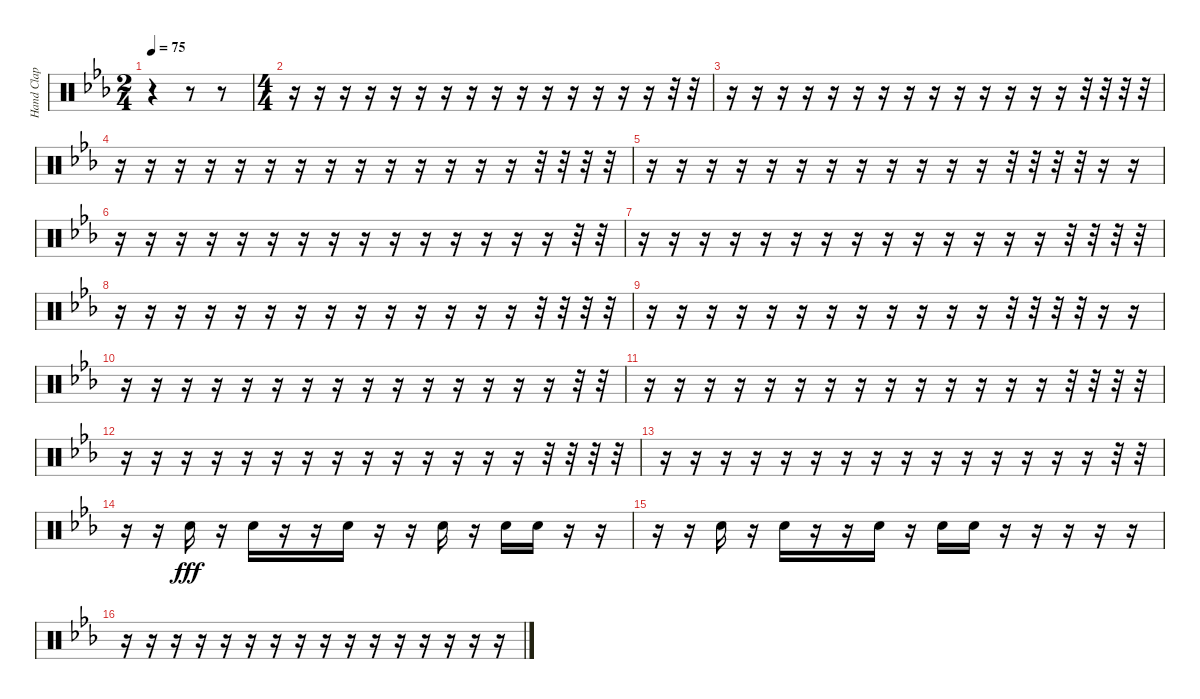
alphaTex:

\track ("Hand Clap" "Hand Clap") {instrument percussion}
\staff {score}
\articulation defaults
\ts (2 4)
\tempo 75
\clef neutral
\ks eb
r.4{dy fff} r.8 r.8 |
\ts (4 4)
r.16 r.16 r.16 r.16 r.16 r.16 r.16 r.16 r.16 r.16 r.16 r.16 r.16 r.16 r.16 r.32 r.32 |
r.16 r.16 r.16 r.16 r.16 r.16 r.16 r.16 r.16 r.16 r.16 r.16 r.16 r.16 r.32 r.32 r.32 r.32 |
r.16 r.16 r.16 r.16 r.16 r.16 r.16 r.16 r.16 r.16 r.16 r.16 r.16 r.16 r.32 r.32 r.32 r.32 |
r.16 r.16 r.16 r.16 r.16 r.16 r.16 r.16 r.16 r.16 r.16 r.16 r.32 r.32 r.32 r.32 r.16 r.16 |
r.16 r.16 r.16 r.16 r.16 r.16 r.16 r.16 r.16 r.16 r.16 r.16 r.16 r.16 r.16 r.32 r.32 |
r.16 r.16 r.16 r.16 r.16 r.16 r.16 r.16 r.16 r.16 r.16 r.16 r.16 r.16 r.32 r.32 r.32 r.32 |
r.16 r.16 r.16 r.16 r.16 r.16 r.16 r.16 r.16 r.16 r.16 r.16 r.16 r.16 r.32 r.32 r.32 r.32 |
r.16 r.16 r.16 r.16 r.16 r.16 r.16 r.16 r.16 r.16 r.16 r.16 r.32 r.32 r.32 r.32 r.16 r.16 |
r.16 r.16 r.16 r.16 r.16 r.16 r.16 r.16 r.16 r.16 r.16 r.16 r.16 r.16 r.16 r.32 r.32 |
r.16 r.16 r.16 r.16 r.16 r.16 r.16 r.16 r.16 r.16 r.16 r.16 r.16 r.16 r.32 r.32 r.32 r.32 |
r.16 r.16 r.16 r.16 r.16 r.16 r.16 r.16 r.16 r.16 r.16 r.16 r.16 r.16 r.32 r.32 r.32 r.32 |
r.16 r.16 r.16 r.16 r.16 r.16 r.16 r.16 r.16 r.16 r.16 r.16 r.16 r.16 r.16 r.32 r.32 |
r.16 r.16 "Hand Clap (hit)".16 r.16 "Hand Clap (hit)".16 r.16 r.16 "Hand Clap (hit)".16 r.16 r.16 "Hand Clap (hit)".16 r.16 "Hand Clap (hit)".16 "Hand Clap (hit)".16 r.16 r.16 |
r.16 r.16 "Hand Clap (hit)".16 r.16 "Hand Clap (hit)".16 r.16 r.16 "Hand Clap (hit)".16 r.16 "Hand Clap (hit)".16 "Hand Clap (hit)".16 r.16 r.16 r.16 r.16 r.16 |
r.16 r.16 r.16 r.16 r.16 r.16 r.16 r.16 r.16 r.16 r.16 r.16 r.16 r.16 r.16 r.16
